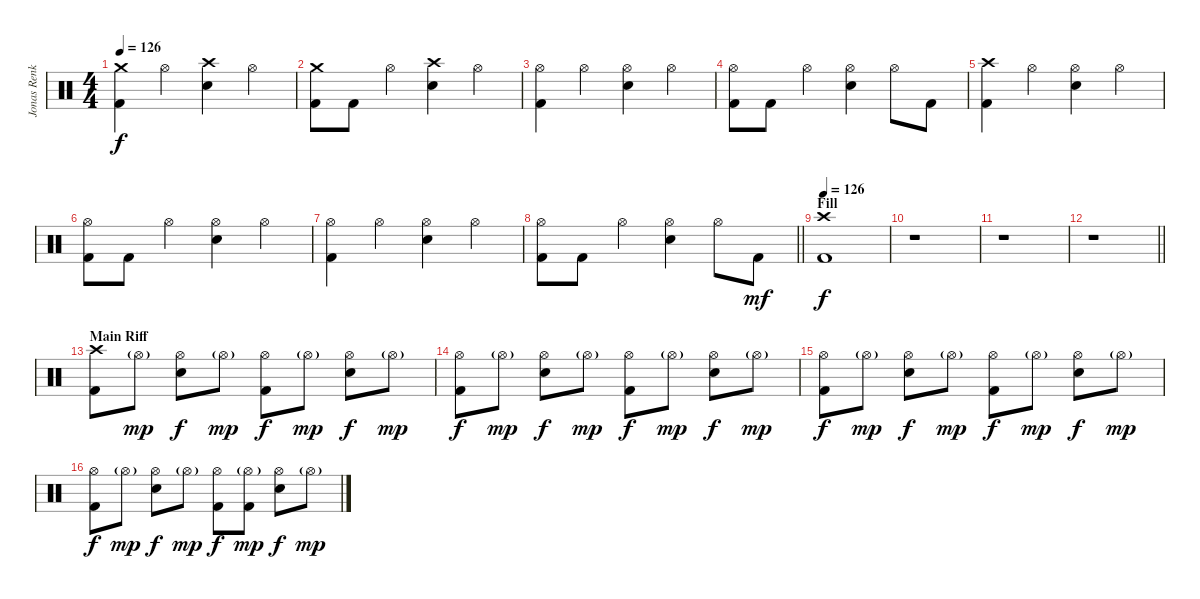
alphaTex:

\track ("Jonas Renkse" "Jonas Renk") {instrument percussion}
\staff {score}
\articulation defaults
\ts (4 4)
\tempo 126
\clef neutral
\ks c
("Crash medium (hit)" "Kick (hit) 2").4{dy f} "Hi-Hat (open)".4 ("Crash high (hit)" "Electric Snare (hit)").4 "Hi-Hat (open)".4 |
("Crash medium (hit)" "Kick (hit) 2").8 "Kick (hit) 2".8 "Hi-Hat (open)".4 ("Crash high (hit)" "Electric Snare (hit)").4 "Hi-Hat (open)".4 |
("Hi-Hat (open)" "Kick (hit) 2").4 "Hi-Hat (open)".4 ("Hi-Hat (open)" "Electric Snare (hit)").4 "Hi-Hat (open)".4 |
("Hi-Hat (open)" "Kick (hit) 2").8 "Kick (hit) 2".8 "Hi-Hat (open)".4 ("Hi-Hat (open)" "Electric Snare (hit)").4 "Hi-Hat (open)".8 "Kick (hit) 2".8 |
("Crash high (hit)" "Kick (hit) 2").4 "Hi-Hat (open)".4 ("Hi-Hat (open)" "Electric Snare (hit)").4 "Hi-Hat (open)".4 |
("Hi-Hat (open)" "Kick (hit) 2").8 "Kick (hit) 2".8 "Hi-Hat (open)".4 ("Hi-Hat (open)" "Electric Snare (hit)").4 "Hi-Hat (open)".4 |
("Hi-Hat (open)" "Kick (hit) 2").4 "Hi-Hat (open)".4 ("Hi-Hat (open)" "Electric Snare (hit)").4 "Hi-Hat (open)".4 |
\barLineRight lightlight
("Hi-Hat (open)" "Kick (hit) 2").8 "Kick (hit) 2".8 "Hi-Hat (open)".4 ("Hi-Hat (open)" "Electric Snare (hit)").4 "Hi-Hat (open)".8 "Kick (hit) 2".8{dy mf} |
\section ("" "Fill")
\tempo 126
("Crash high (hit)" "Kick (hit) 2").1{dy f} |
r.1 |
r.1 |
\barLineRight lightlight
r.1 |
\section ("" "Main Riff")
("Crash high (hit)" "Kick (hit) 2").8 "Hi-Hat (open)"{g}.8{dy mp} ("Hi-Hat (open)" "Electric Snare (hit)").8{dy f} "Hi-Hat (open)"{g}.8{dy mp} ("Hi-Hat (open)" "Kick (hit) 2").8{dy f} "Hi-Hat (open)"{g}.8{dy mp} ("Hi-Hat (open)" "Electric Snare (hit)").8{dy f} "Hi-Hat (open)"{g}.8{dy mp} |
("Hi-Hat (open)" "Kick (hit) 2").8{dy f} "Hi-Hat (open)"{g}.8{dy mp} ("Hi-Hat (open)" "Electric Snare (hit)").8{dy f} "Hi-Hat (open)"{g}.8{dy mp} ("Hi-Hat (open)" "Kick (hit) 2").8{dy f} "Hi-Hat (open)"{g}.8{dy mp} ("Hi-Hat (open)" "Electric Snare (hit)").8{dy f} "Hi-Hat (open)"{g}.8{dy mp} |
("Hi-Hat (open)" "Kick (hit) 2").8{dy f} "Hi-Hat (open)"{g}.8{dy mp} ("Hi-Hat (open)" "Electric Snare (hit)").8{dy f} "Hi-Hat (open)"{g}.8{dy mp} ("Hi-Hat (open)" "Kick (hit) 2").8{dy f} "Hi-Hat (open)"{g}.8{dy mp} ("Hi-Hat (open)" "Electric Snare (hit)").8{dy f} "Hi-Hat (open)"{g}.8{dy mp} |
("Hi-Hat (open)" "Kick (hit) 2").8{dy f} "Hi-Hat (open)"{g}.8{dy mp} ("Hi-Hat (open)" "Electric Snare (hit)").8{dy f} "Hi-Hat (open)"{g}.8{dy mp} ("Hi-Hat (open)" "Kick (hit) 2").8{dy f} ("Hi-Hat (open)"{g} "Kick (hit) 2").8{dy mp} ("Hi-Hat (open)" "Electric Snare (hit)").8{dy f} "Hi-Hat (open)"{g}.8{dy mp}
